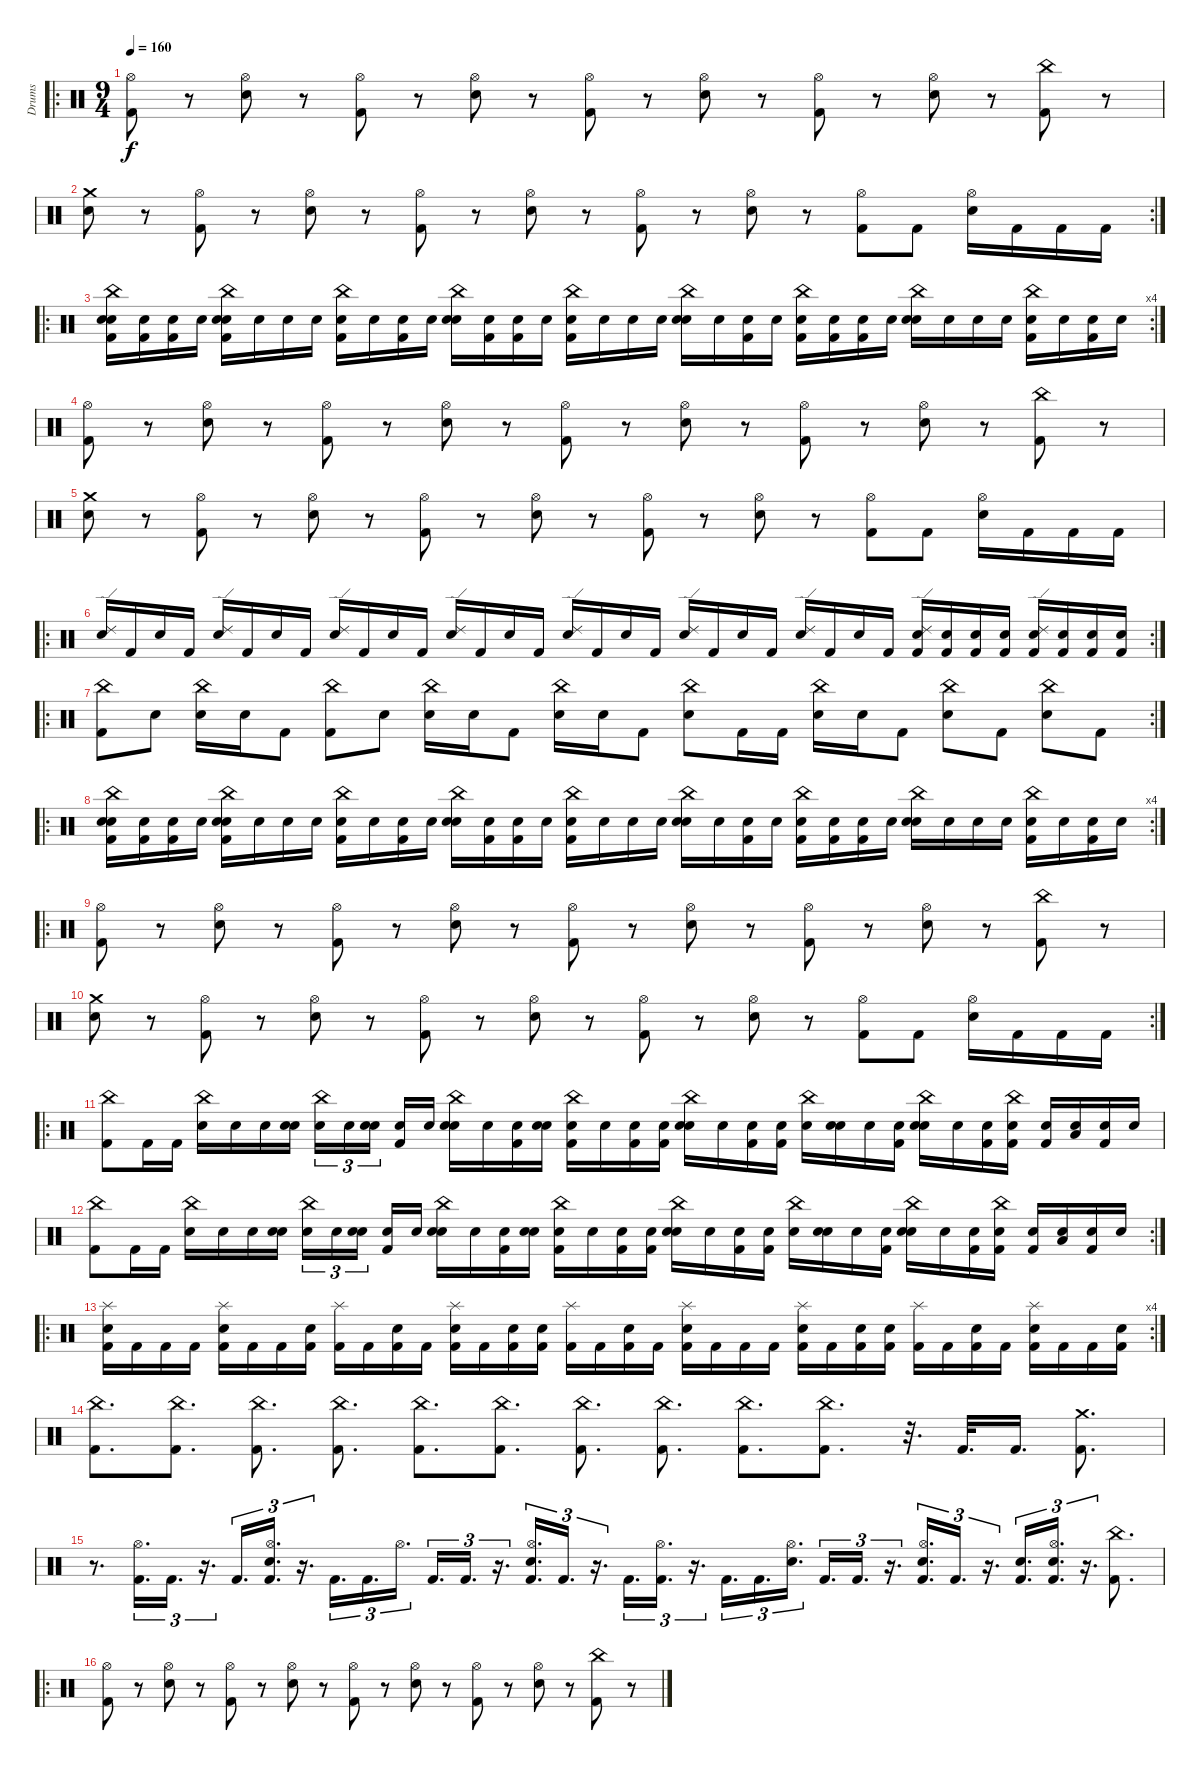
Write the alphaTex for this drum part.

\track ("Drums" "Drums") {instrument percussion}
\staff {score}
\articulation defaults
\ro
\ts (9 4)
\tempo 160
\clef neutral
\ks c
("Kick (hit) 2" "Hi-Hat (open)").8{dy f} r.8 ("Snare (hit) 2" "Hi-Hat (open)").8 r.8 ("Kick (hit) 2" "Hi-Hat (open)").8 r.8 ("Snare (hit) 2" "Hi-Hat (open)").8 r.8 ("Kick (hit) 2" "Hi-Hat (open)").8 r.8 ("Snare (hit) 2" "Hi-Hat (open)").8 r.8 ("Kick (hit) 2" "Hi-Hat (open)").8 r.8 ("Snare (hit) 2" "Hi-Hat (open)").8 r.8 ("Kick (hit) 2" "China (hit)").8 r.8 |
\rc 2
("Snare (hit) 2" "Crash medium (hit)").8 r.8 ("Kick (hit) 2" "Hi-Hat (open)").8 r.8 ("Snare (hit) 2" "Hi-Hat (open)").8 r.8 ("Kick (hit) 2" "Hi-Hat (open)").8 r.8 ("Snare (hit) 2" "Hi-Hat (open)").8 r.8 ("Kick (hit) 2" "Hi-Hat (open)").8 r.8 ("Snare (hit) 2" "Hi-Hat (open)").8 r.8 ("Kick (hit) 2" "Hi-Hat (open)").8 "Kick (hit) 2".8 ("Snare (hit) 2" "Hi-Hat (open)").16 "Kick (hit) 2".16 "Kick (hit) 2".16 "Kick (hit) 2".16 |
\ro
\rc 4
("Snare (hit)" "Kick (hit) 2" "Snare (hit) 2" "China (hit)").16 ("Snare (hit)" "Kick (hit) 2").16 ("Snare (hit)" "Kick (hit) 2").16 "Snare (hit)".16 ("Snare (hit)" "Kick (hit) 2" "Snare (hit) 2" "China (hit)").16 "Snare (hit)".16 "Snare (hit)".16 "Snare (hit)".16 ("Snare (hit)" "Kick (hit) 2" "China (hit)").16 "Snare (hit)".16 ("Snare (hit)" "Kick (hit) 2").16 "Snare (hit)".16 ("Snare (hit)" "Snare (hit) 2" "China (hit)").16 ("Snare (hit)" "Kick (hit) 2").16 ("Snare (hit)" "Kick (hit) 2").16 "Snare (hit)".16 ("Snare (hit)" "Kick (hit) 2" "China (hit)").16 "Snare (hit)".16 "Snare (hit)".16 "Snare (hit)".16 ("Snare (hit)" "Snare (hit) 2" "China (hit)").16 "Snare (hit)".16 ("Snare (hit)" "Kick (hit) 2").16 "Snare (hit)".16 ("Snare (hit)" "Kick (hit) 2" "China (hit)").16 ("Snare (hit)" "Kick (hit) 2").16 ("Snare (hit)" "Kick (hit) 2").16 "Snare (hit)".16 ("Snare (hit)" "Snare (hit) 2" "China (hit)").16 "Snare (hit)".16 "Snare (hit)".16 "Snare (hit)".16 ("Snare (hit)" "Kick (hit) 2" "China (hit)").16 "Snare (hit)".16 ("Snare (hit)" "Kick (hit) 2").16 "Snare (hit)".16 |
("Kick (hit) 2" "Hi-Hat (open)").8 r.8 ("Snare (hit) 2" "Hi-Hat (open)").8 r.8 ("Kick (hit) 2" "Hi-Hat (open)").8 r.8 ("Snare (hit) 2" "Hi-Hat (open)").8 r.8 ("Kick (hit) 2" "Hi-Hat (open)").8 r.8 ("Snare (hit) 2" "Hi-Hat (open)").8 r.8 ("Kick (hit) 2" "Hi-Hat (open)").8 r.8 ("Snare (hit) 2" "Hi-Hat (open)").8 r.8 ("Kick (hit) 2" "China (hit)").8 r.8 |
("Snare (hit) 2" "Crash medium (hit)").8 r.8 ("Kick (hit) 2" "Hi-Hat (open)").8 r.8 ("Snare (hit) 2" "Hi-Hat (open)").8 r.8 ("Kick (hit) 2" "Hi-Hat (open)").8 r.8 ("Snare (hit) 2" "Hi-Hat (open)").8 r.8 ("Kick (hit) 2" "Hi-Hat (open)").8 r.8 ("Snare (hit) 2" "Hi-Hat (open)").8 r.8 ("Kick (hit) 2" "Hi-Hat (open)").8 "Kick (hit) 2".8 ("Snare (hit) 2" "Hi-Hat (open)").16 "Kick (hit) 2".16 "Kick (hit) 2".16 "Kick (hit) 2".16 |
\ro
\rc 2
("Snare (hit) 2" "Ride (edge) 2").16 "Kick (hit) 2".16 "Snare (hit) 2".16 "Kick (hit) 2".16 ("Snare (hit) 2" "Ride (edge) 2").16 "Kick (hit) 2".16 "Snare (hit) 2".16 "Kick (hit) 2".16 ("Snare (hit) 2" "Ride (edge) 2").16 "Kick (hit) 2".16 "Snare (hit) 2".16 "Kick (hit) 2".16 ("Snare (hit) 2" "Ride (edge) 2").16 "Kick (hit) 2".16 "Snare (hit) 2".16 "Kick (hit) 2".16 ("Snare (hit) 2" "Ride (edge) 2").16 "Kick (hit) 2".16 "Snare (hit) 2".16 "Kick (hit) 2".16 ("Snare (hit) 2" "Ride (edge) 2").16 "Kick (hit) 2".16 "Snare (hit) 2".16 "Kick (hit) 2".16 ("Snare (hit) 2" "Ride (edge) 2").16 "Kick (hit) 2".16 "Snare (hit) 2".16 "Kick (hit) 2".16 ("Kick (hit) 2" "Snare (hit) 2" "Ride (edge) 2").16 ("Kick (hit) 2" "Snare (hit) 2").16 ("Kick (hit) 2" "Snare (hit) 2").16 ("Kick (hit) 2" "Snare (hit) 2").16 ("Kick (hit) 2" "Snare (hit) 2" "Ride (edge) 2").16 ("Kick (hit) 2" "Snare (hit) 2").16 ("Kick (hit) 2" "Snare (hit) 2").16 ("Kick (hit) 2" "Snare (hit) 2").16 |
\ro
\rc 2
("China (hit)" "Kick (hit) 2").8 "Snare (hit) 2".8 ("China (hit)" "Snare (hit) 2").16 "Snare (hit) 2".16 "Kick (hit) 2".8 ("China (hit)" "Kick (hit) 2").8 "Snare (hit) 2".8 ("China (hit)" "Snare (hit) 2").16 "Snare (hit) 2".16 "Kick (hit) 2".8 ("China (hit)" "Snare (hit) 2").16 "Snare (hit) 2".16 "Kick (hit) 2".8 ("China (hit)" "Snare (hit) 2").8 "Kick (hit) 2".16 "Kick (hit) 2".16 ("China (hit)" "Snare (hit) 2").16 "Snare (hit) 2".16 "Kick (hit) 2".8 ("China (hit)" "Snare (hit) 2").8 "Kick (hit) 2".8 ("China (hit)" "Snare (hit) 2").8 "Kick (hit) 2".8 |
\ro
\rc 4
("Snare (hit)" "Kick (hit) 2" "Snare (hit) 2" "China (hit)").16 ("Snare (hit)" "Kick (hit) 2").16 ("Snare (hit)" "Kick (hit) 2").16 "Snare (hit)".16 ("Snare (hit)" "Kick (hit) 2" "Snare (hit) 2" "China (hit)").16 "Snare (hit)".16 "Snare (hit)".16 "Snare (hit)".16 ("Snare (hit)" "Kick (hit) 2" "China (hit)").16 "Snare (hit)".16 ("Snare (hit)" "Kick (hit) 2").16 "Snare (hit)".16 ("Snare (hit)" "Snare (hit) 2" "China (hit)").16 ("Snare (hit)" "Kick (hit) 2").16 ("Snare (hit)" "Kick (hit) 2").16 "Snare (hit)".16 ("Snare (hit)" "Kick (hit) 2" "China (hit)").16 "Snare (hit)".16 "Snare (hit)".16 "Snare (hit)".16 ("Snare (hit)" "Snare (hit) 2" "China (hit)").16 "Snare (hit)".16 ("Snare (hit)" "Kick (hit) 2").16 "Snare (hit)".16 ("Snare (hit)" "Kick (hit) 2" "China (hit)").16 ("Snare (hit)" "Kick (hit) 2").16 ("Snare (hit)" "Kick (hit) 2").16 "Snare (hit)".16 ("Snare (hit)" "Snare (hit) 2" "China (hit)").16 "Snare (hit)".16 "Snare (hit)".16 "Snare (hit)".16 ("Snare (hit)" "Kick (hit) 2" "China (hit)").16 "Snare (hit)".16 ("Snare (hit)" "Kick (hit) 2").16 "Snare (hit)".16 |
\ro
("Kick (hit) 2" "Hi-Hat (open)").8 r.8 ("Snare (hit) 2" "Hi-Hat (open)").8 r.8 ("Kick (hit) 2" "Hi-Hat (open)").8 r.8 ("Snare (hit) 2" "Hi-Hat (open)").8 r.8 ("Kick (hit) 2" "Hi-Hat (open)").8 r.8 ("Snare (hit) 2" "Hi-Hat (open)").8 r.8 ("Kick (hit) 2" "Hi-Hat (open)").8 r.8 ("Snare (hit) 2" "Hi-Hat (open)").8 r.8 ("Kick (hit) 2" "China (hit)").8 r.8 |
\rc 2
("Snare (hit) 2" "Crash medium (hit)").8 r.8 ("Kick (hit) 2" "Hi-Hat (open)").8 r.8 ("Snare (hit) 2" "Hi-Hat (open)").8 r.8 ("Kick (hit) 2" "Hi-Hat (open)").8 r.8 ("Snare (hit) 2" "Hi-Hat (open)").8 r.8 ("Kick (hit) 2" "Hi-Hat (open)").8 r.8 ("Snare (hit) 2" "Hi-Hat (open)").8 r.8 ("Kick (hit) 2" "Hi-Hat (open)").8 "Kick (hit) 2".8 ("Snare (hit) 2" "Hi-Hat (open)").16 "Kick (hit) 2".16 "Kick (hit) 2".16 "Kick (hit) 2".16 |
\ro
("China (hit)" "Kick (hit) 2").8 "Kick (hit) 2".16 "Kick (hit) 2".16 ("China (hit)" "Snare (hit) 2").16 "Snare (hit)".16 "Snare (hit)".16 ("Snare (hit)" "Snare (hit) 2").16 ("Snare (hit)" "China (hit)").16{tu (3 2)} "Snare (hit)".16{tu (3 2)} ("Snare (hit)" "Snare (hit) 2").16{tu (3 2)} ("Snare (hit)" "Kick (hit) 2").16 "Snare (hit)".16 ("Snare (hit)" "China (hit)" "Snare (hit) 2").16 "Snare (hit)".16 ("Snare (hit)" "Kick (hit) 2").16 ("Snare (hit)" "Snare (hit) 2").16 ("Snare (hit)" "China (hit)" "Kick (hit) 2").16 "Snare (hit)".16 ("Snare (hit)" "Kick (hit) 2").16 ("Snare (hit)" "Kick (hit) 2").16 ("Snare (hit)" "China (hit)" "Snare (hit) 2").16 "Snare (hit)".16 ("Snare (hit)" "Kick (hit) 2").16 ("Snare (hit)" "Kick (hit) 2").16 ("Snare (hit)" "China (hit)").16 ("Snare (hit)" "Snare (hit) 2").16 "Snare (hit)".16 ("Snare (hit)" "Kick (hit) 2").16 ("Snare (hit)" "China (hit)" "Snare (hit) 2").16 "Snare (hit)".16 ("Snare (hit)" "Kick (hit) 2").16 ("Snare (hit)" "China (hit)" "Kick (hit) 2").16 ("Snare (hit)" "Kick (hit) 2").16 ("Snare (hit)" "Low Tom (hit)").16 ("Snare (hit)" "Kick (hit) 2").16 "Snare (hit)".16 |
\rc 2
("China (hit)" "Kick (hit) 2").8 "Kick (hit) 2".16 "Kick (hit) 2".16 ("China (hit)" "Snare (hit) 2").16 "Snare (hit)".16 "Snare (hit)".16 ("Snare (hit)" "Snare (hit) 2").16 ("Snare (hit)" "China (hit)").16{tu (3 2)} "Snare (hit)".16{tu (3 2)} ("Snare (hit)" "Snare (hit) 2").16{tu (3 2)} ("Snare (hit)" "Kick (hit) 2").16 "Snare (hit)".16 ("Snare (hit)" "China (hit)" "Snare (hit) 2").16 "Snare (hit)".16 ("Snare (hit)" "Kick (hit) 2").16 ("Snare (hit)" "Snare (hit) 2").16 ("Snare (hit)" "China (hit)" "Kick (hit) 2").16 "Snare (hit)".16 ("Snare (hit)" "Kick (hit) 2").16 ("Snare (hit)" "Kick (hit) 2").16 ("Snare (hit)" "China (hit)" "Snare (hit) 2").16 "Snare (hit)".16 ("Snare (hit)" "Kick (hit) 2").16 ("Snare (hit)" "Kick (hit) 2").16 ("Snare (hit)" "China (hit)").16 ("Snare (hit)" "Snare (hit) 2").16 "Snare (hit)".16 ("Snare (hit)" "Kick (hit) 2").16 ("Snare (hit)" "China (hit)" "Snare (hit) 2").16 "Snare (hit)".16 ("Snare (hit)" "Kick (hit) 2").16 ("Snare (hit)" "China (hit)" "Kick (hit) 2").16 ("Snare (hit)" "Kick (hit) 2").16 ("Snare (hit)" "Low Tom (hit)").16 ("Snare (hit)" "Kick (hit) 2").16 "Snare (hit)".16 |
\ro
\rc 4
("Kick (hit) 2" "Snare (hit) 2" "Splash (hit)").16 "Kick (hit) 2".16 "Kick (hit) 2".16 "Kick (hit) 2".16 ("Kick (hit) 2" "Snare (hit) 2" "Splash (hit)").16 "Kick (hit) 2".16 "Kick (hit) 2".16 ("Kick (hit) 2" "Snare (hit) 2").16 ("Kick (hit) 2" "Splash (hit)").16 "Kick (hit) 2".16 ("Kick (hit) 2" "Snare (hit) 2").16 "Kick (hit) 2".16 ("Kick (hit) 2" "Snare (hit) 2" "Splash (hit)").16 "Kick (hit) 2".16 ("Kick (hit) 2" "Snare (hit) 2").16 ("Kick (hit) 2" "Snare (hit) 2").16 ("Kick (hit) 2" "Splash (hit)").16 "Kick (hit) 2".16 ("Kick (hit) 2" "Snare (hit) 2").16 "Kick (hit) 2".16 ("Kick (hit) 2" "Snare (hit) 2" "Splash (hit)").16 "Kick (hit) 2".16 "Kick (hit) 2".16 "Kick (hit) 2".16 ("Kick (hit) 2" "Snare (hit) 2" "Splash (hit)").16 "Kick (hit) 2".16 ("Kick (hit) 2" "Snare (hit) 2").16 ("Kick (hit) 2" "Snare (hit) 2").16 ("Kick (hit) 2" "Splash (hit)").16 "Kick (hit) 2".16 ("Kick (hit) 2" "Snare (hit) 2").16 "Kick (hit) 2".16 ("Kick (hit) 2" "Snare (hit) 2" "Splash (hit)").16 "Kick (hit) 2".16 "Kick (hit) 2".16 ("Kick (hit) 2" "Snare (hit) 2").16 |
("Kick (hit) 2" "China (hit)").8{d} ("Kick (hit) 2" "China (hit)").8{d} ("Kick (hit) 2" "China (hit)").8{d} ("Kick (hit) 2" "China (hit)").8{d} ("Kick (hit) 2" "China (hit)").8{d} ("Kick (hit) 2" "China (hit)").8{d} ("Kick (hit) 2" "China (hit)").8{d} ("Kick (hit) 2" "China (hit)").8{d} ("Kick (hit) 2" "China (hit)").8{d} ("Kick (hit) 2" "China (hit)").8{d} r.32{d} "Kick (hit) 2".32{d} "Kick (hit) 2".16{d} ("Kick (hit) 2" "Crash medium (hit)").8{d} |
r.8{d} ("Hi-Hat (open)" "Kick (hit) 2").16{d tu (3 2)} "Kick (hit) 2".16{d tu (3 2)} r.16{d tu (3 2)} "Kick (hit) 2".16{d tu (3 2)} ("Hi-Hat (open)" "Kick (hit) 2" "Snare (hit) 2").16{d tu (3 2)} r.16{d tu (3 2)} "Kick (hit) 2".16{d tu (3 2)} "Kick (hit) 2".16{d tu (3 2)} "Hi-Hat (open)".16{d tu (3 2)} "Kick (hit) 2".16{d tu (3 2)} "Kick (hit) 2".16{d tu (3 2)} r.16{d tu (3 2)} ("Hi-Hat (open)" "Kick (hit) 2" "Snare (hit) 2").16{d tu (3 2)} "Kick (hit) 2".16{d tu (3 2)} r.16{d tu (3 2)} "Kick (hit) 2".16{d tu (3 2)} ("Hi-Hat (open)" "Kick (hit) 2").16{d tu (3 2)} r.16{d tu (3 2)} "Kick (hit) 2".16{d tu (3 2)} "Kick (hit) 2".16{d tu (3 2)} ("Hi-Hat (open)" "Snare (hit) 2").16{d tu (3 2)} "Kick (hit) 2".16{d tu (3 2)} "Kick (hit) 2".16{d tu (3 2)} r.16{d tu (3 2)} ("Hi-Hat (open)" "Kick (hit) 2" "Snare (hit) 2").16{d tu (3 2)} "Kick (hit) 2".16{d tu (3 2)} r.16{d tu (3 2)} ("Kick (hit) 2" "Snare (hit) 2").16{d tu (3 2)} ("Hi-Hat (open)" "Kick (hit) 2" "Snare (hit) 2").16{d tu (3 2)} r.16{d tu (3 2)} ("Kick (hit) 2" "China (hit)").8{d} |
\ro
("Kick (hit) 2" "Hi-Hat (open)").8 r.8 ("Snare (hit) 2" "Hi-Hat (open)").8 r.8 ("Kick (hit) 2" "Hi-Hat (open)").8 r.8 ("Snare (hit) 2" "Hi-Hat (open)").8 r.8 ("Kick (hit) 2" "Hi-Hat (open)").8 r.8 ("Snare (hit) 2" "Hi-Hat (open)").8 r.8 ("Kick (hit) 2" "Hi-Hat (open)").8 r.8 ("Snare (hit) 2" "Hi-Hat (open)").8 r.8 ("Kick (hit) 2" "China (hit)").8 r.8
